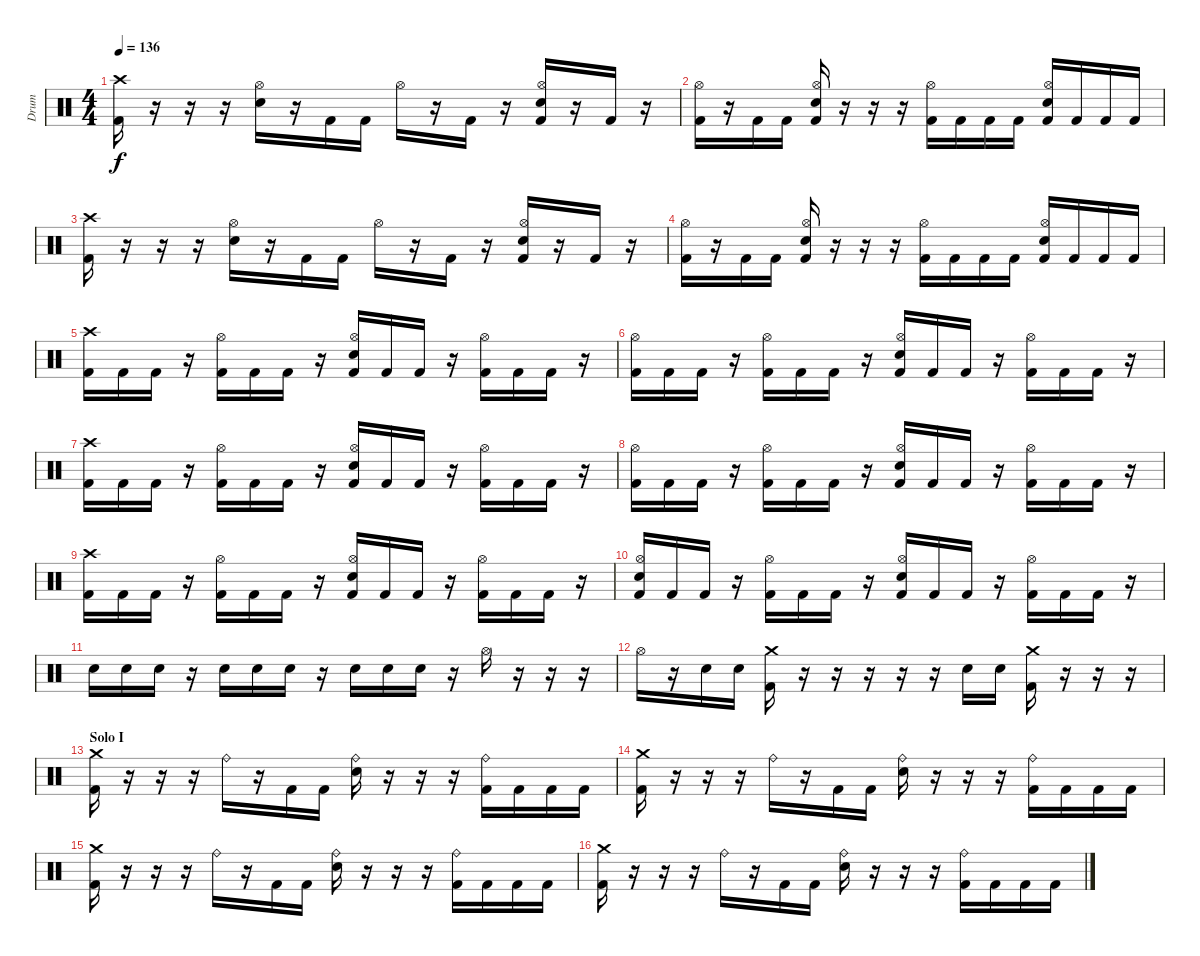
\track ("Drum" "Drum") {instrument percussion}
\staff {score}
\articulation defaults
\ts (4 4)
\tempo 136
\clef neutral
\ks c
("Crash high (hit)" "Kick (hit) 2").16{dy f} r.16 r.16 r.16 ("Hi-Hat (open)" "Snare (hit) 2").16 r.16 "Kick (hit) 2".16 "Kick (hit) 2".16 "Hi-Hat (open)".16 r.16 "Kick (hit) 2".16 r.16 ("Hi-Hat (open)" "Snare (hit) 2" "Kick (hit) 2").16 r.16 "Kick (hit) 2".16 r.16 |
("Hi-Hat (open)" "Kick (hit) 2").16 r.16 "Kick (hit) 2".16 "Kick (hit) 2".16 ("Hi-Hat (open)" "Snare (hit) 2" "Kick (hit) 2").16 r.16 r.16 r.16 ("Hi-Hat (open)" "Kick (hit) 2").16 "Kick (hit) 2".16 "Kick (hit) 2".16 "Kick (hit) 2".16 ("Hi-Hat (open)" "Snare (hit) 2" "Kick (hit) 2").16 "Kick (hit) 2".16 "Kick (hit) 2".16 "Kick (hit) 2".16 |
("Crash high (hit)" "Kick (hit) 2").16 r.16 r.16 r.16 ("Hi-Hat (open)" "Snare (hit) 2").16 r.16 "Kick (hit) 2".16 "Kick (hit) 2".16 "Hi-Hat (open)".16 r.16 "Kick (hit) 2".16 r.16 ("Hi-Hat (open)" "Snare (hit) 2" "Kick (hit) 2").16 r.16 "Kick (hit) 2".16 r.16 |
("Hi-Hat (open)" "Kick (hit) 2").16 r.16 "Kick (hit) 2".16 "Kick (hit) 2".16 ("Hi-Hat (open)" "Snare (hit) 2" "Kick (hit) 2").16 r.16 r.16 r.16 ("Hi-Hat (open)" "Kick (hit) 2").16 "Kick (hit) 2".16 "Kick (hit) 2".16 "Kick (hit) 2".16 ("Hi-Hat (open)" "Snare (hit) 2" "Kick (hit) 2").16 "Kick (hit) 2".16 "Kick (hit) 2".16 "Kick (hit) 2".16 |
("Crash high (hit)" "Kick (hit) 2").16 "Kick (hit) 2".16 "Kick (hit) 2".16 r.16 ("Hi-Hat (open)" "Kick (hit) 2").16 "Kick (hit) 2".16 "Kick (hit) 2".16 r.16 ("Hi-Hat (open)" "Snare (hit) 2" "Kick (hit) 2").16 "Kick (hit) 2".16 "Kick (hit) 2".16 r.16 ("Hi-Hat (open)" "Kick (hit) 2").16 "Kick (hit) 2".16 "Kick (hit) 2".16 r.16 |
("Hi-Hat (open)" "Kick (hit) 2").16 "Kick (hit) 2".16 "Kick (hit) 2".16 r.16 ("Hi-Hat (open)" "Kick (hit) 2").16 "Kick (hit) 2".16 "Kick (hit) 2".16 r.16 ("Hi-Hat (open)" "Snare (hit) 2" "Kick (hit) 2").16 "Kick (hit) 2".16 "Kick (hit) 2".16 r.16 ("Hi-Hat (open)" "Kick (hit) 2").16 "Kick (hit) 2".16 "Kick (hit) 2".16 r.16 |
("Crash high (hit)" "Kick (hit) 2").16 "Kick (hit) 2".16 "Kick (hit) 2".16 r.16 ("Hi-Hat (open)" "Kick (hit) 2").16 "Kick (hit) 2".16 "Kick (hit) 2".16 r.16 ("Hi-Hat (open)" "Snare (hit) 2" "Kick (hit) 2").16 "Kick (hit) 2".16 "Kick (hit) 2".16 r.16 ("Hi-Hat (open)" "Kick (hit) 2").16 "Kick (hit) 2".16 "Kick (hit) 2".16 r.16 |
("Hi-Hat (open)" "Kick (hit) 2").16 "Kick (hit) 2".16 "Kick (hit) 2".16 r.16 ("Hi-Hat (open)" "Kick (hit) 2").16 "Kick (hit) 2".16 "Kick (hit) 2".16 r.16 ("Hi-Hat (open)" "Snare (hit) 2" "Kick (hit) 2").16 "Kick (hit) 2".16 "Kick (hit) 2".16 r.16 ("Hi-Hat (open)" "Kick (hit) 2").16 "Kick (hit) 2".16 "Kick (hit) 2".16 r.16 |
("Crash high (hit)" "Kick (hit) 2").16 "Kick (hit) 2".16 "Kick (hit) 2".16 r.16 ("Hi-Hat (open)" "Kick (hit) 2").16 "Kick (hit) 2".16 "Kick (hit) 2".16 r.16 ("Hi-Hat (open)" "Snare (hit) 2" "Kick (hit) 2").16 "Kick (hit) 2".16 "Kick (hit) 2".16 r.16 ("Hi-Hat (open)" "Kick (hit) 2").16 "Kick (hit) 2".16 "Kick (hit) 2".16 r.16 |
("Hi-Hat (open)" "Snare (hit) 2" "Kick (hit) 2").16 "Kick (hit) 2".16 "Kick (hit) 2".16 r.16 ("Hi-Hat (open)" "Kick (hit) 2").16 "Kick (hit) 2".16 "Kick (hit) 2".16 r.16 ("Hi-Hat (open)" "Snare (hit) 2" "Kick (hit) 2").16 "Kick (hit) 2".16 "Kick (hit) 2".16 r.16 ("Hi-Hat (open)" "Kick (hit) 2").16 "Kick (hit) 2".16 "Kick (hit) 2".16 r.16 |
"Snare (hit) 2".16 "Snare (hit) 2".16 "Snare (hit) 2".16 r.16 "Snare (hit) 2".16 "Snare (hit) 2".16 "Snare (hit) 2".16 r.16 "Snare (hit) 2".16 "Snare (hit) 2".16 "Snare (hit) 2".16 r.16 "Hi-Hat (open)".16 r.16 r.16 r.16 |
"Hi-Hat (open)".16 r.16 "Snare (hit) 2".16 "Snare (hit) 2".16 ("Crash medium (hit)" "Kick (hit) 2").16 r.16 r.16 r.16 r.16 r.16 "Snare (hit) 2".16 "Snare (hit) 2".16 ("Crash medium (hit)" "Kick (hit) 2").16 r.16 r.16 r.16 |
\section ("" "Solo I")
("Crash medium (hit)" "Kick (hit) 2").16 r.16 r.16 r.16 "Ride (bell)".16 r.16 "Kick (hit) 2".16 "Kick (hit) 2".16 ("Ride (bell)" "Snare (hit) 2").16 r.16 r.16 r.16 ("Ride (bell)" "Kick (hit) 2").16 "Kick (hit) 2".16 "Kick (hit) 2".16 "Kick (hit) 2".16 |
("Crash medium (hit)" "Kick (hit) 2").16 r.16 r.16 r.16 "Ride (bell)".16 r.16 "Kick (hit) 2".16 "Kick (hit) 2".16 ("Ride (bell)" "Snare (hit) 2").16 r.16 r.16 r.16 ("Ride (bell)" "Kick (hit) 2").16 "Kick (hit) 2".16 "Kick (hit) 2".16 "Kick (hit) 2".16 |
("Crash medium (hit)" "Kick (hit) 2").16 r.16 r.16 r.16 "Ride (bell)".16 r.16 "Kick (hit) 2".16 "Kick (hit) 2".16 ("Ride (bell)" "Snare (hit) 2").16 r.16 r.16 r.16 ("Ride (bell)" "Kick (hit) 2").16 "Kick (hit) 2".16 "Kick (hit) 2".16 "Kick (hit) 2".16 |
("Crash medium (hit)" "Kick (hit) 2").16 r.16 r.16 r.16 "Ride (bell)".16 r.16 "Kick (hit) 2".16 "Kick (hit) 2".16 ("Ride (bell)" "Snare (hit) 2").16 r.16 r.16 r.16 ("Ride (bell)" "Kick (hit) 2").16 "Kick (hit) 2".16 "Kick (hit) 2".16 "Kick (hit) 2".16
